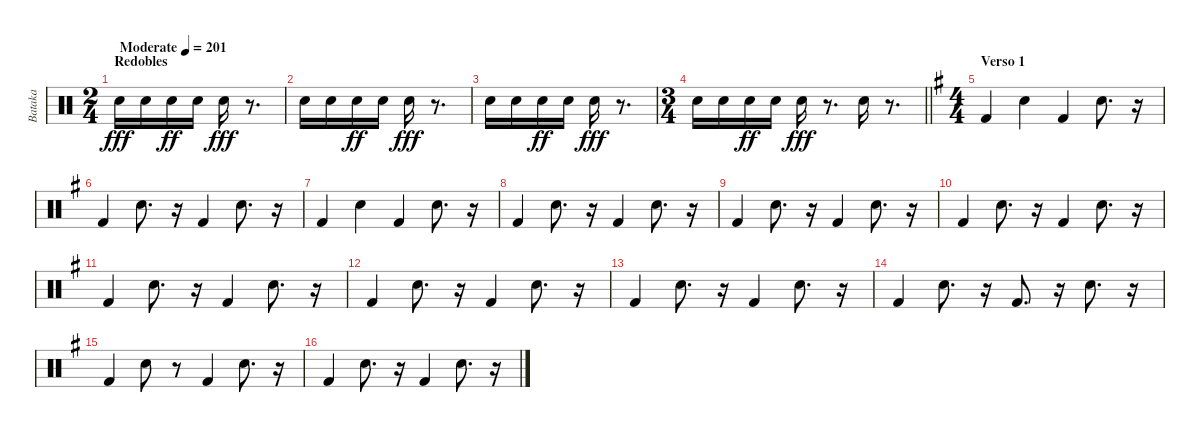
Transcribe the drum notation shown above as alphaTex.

\track ("Bataka" "Bataka") {instrument percussion}
\staff {score}
\articulation defaults
\ts (2 4)
\section ("" "Redobles")
\tempo (201 "Moderate")
\clef neutral
\ks c "Electric Snare (hit)".16{dy fff} "Electric Snare (hit)".16 "Electric Snare (hit)".16{dy ff} "Electric Snare (hit)".16 "Electric Snare (hit)".16{dy fff}
r.8{d} |
"Electric Snare (hit)".16 "Electric Snare (hit)".16 "Electric Snare (hit)".16{dy ff} "Electric Snare (hit)".16 "Electric Snare (hit)".16{dy fff} r.8{d} |
"Electric Snare (hit)".16 "Electric Snare (hit)".16 "Electric Snare (hit)".16{dy ff} "Electric Snare (hit)".16 "Electric Snare (hit)".16{dy fff} r.8{d} |
\ts (3 4)
\barLineRight lightlight "Electric Snare (hit)".16 "Electric Snare (hit)".16 "Electric Snare (hit)".16{dy ff} "Electric Snare (hit)".16 "Electric Snare (hit)".16{dy fff}
r.8{d} "Electric Snare (hit)".16 r.8{d} |
\ts (4 4)
\section ("" "Verso 1")
\ks g "Kick (hit) 2".4 "Electric Snare (hit)".4 "Kick (hit) 2".4 "Electric Snare (hit)".8{d}
r.16 |
"Kick (hit) 2".4 "Electric Snare (hit)".8{d} r.16 "Kick (hit) 2".4 "Electric Snare (hit)".8{d} r.16 |
"Kick (hit) 2".4 "Electric Snare (hit)".4 "Kick (hit) 2".4 "Electric Snare (hit)".8{d} r.16 |
"Kick (hit) 2".4 "Electric Snare (hit)".8{d} r.16 "Kick (hit) 2".4 "Electric Snare (hit)".8{d} r.16 |
"Kick (hit) 2".4 "Electric Snare (hit)".8{d} r.16 "Kick (hit) 2".4 "Electric Snare (hit)".8{d} r.16 |
"Kick (hit) 2".4 "Electric Snare (hit)".8{d} r.16 "Kick (hit) 2".4 "Electric Snare (hit)".8{d} r.16 |
"Kick (hit) 2".4 "Electric Snare (hit)".8{d} r.16 "Kick (hit) 2".4 "Electric Snare (hit)".8{d} r.16 |
"Kick (hit) 2".4 "Electric Snare (hit)".8{d} r.16 "Kick (hit) 2".4 "Electric Snare (hit)".8{d} r.16 |
"Kick (hit) 2".4 "Electric Snare (hit)".8{d} r.16 "Kick (hit) 2".4 "Electric Snare (hit)".8{d} r.16 |
"Kick (hit) 2".4 "Electric Snare (hit)".8{d} r.16 "Kick (hit) 2".8{d} r.16 "Electric Snare (hit)".8{d} r.16 |
"Kick (hit) 2".4 "Electric Snare (hit)".8 r.8 "Kick (hit) 2".4 "Electric Snare (hit)".8{d} r.16 |
"Kick (hit) 2".4 "Electric Snare (hit)".8{d} r.16 "Kick (hit) 2".4 "Electric Snare (hit)".8{d} r.16
